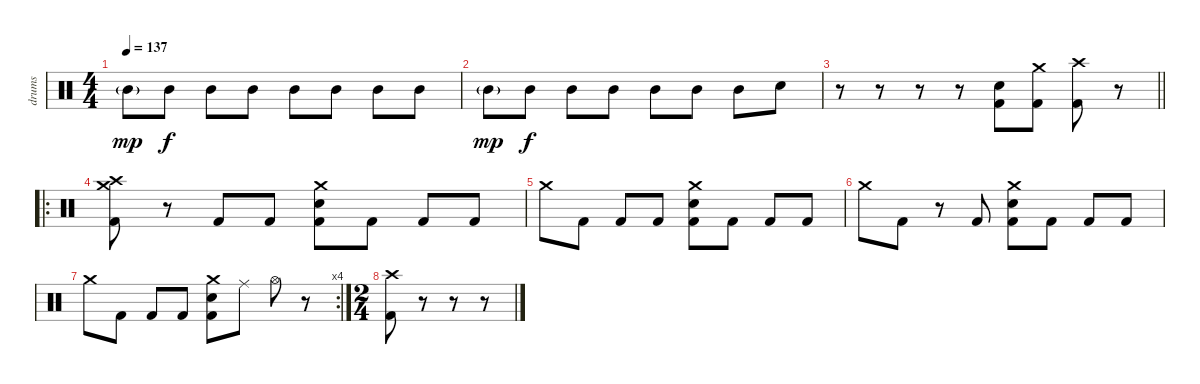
\track ("drums" "drums") {instrument percussion}
\staff {score}
\articulation defaults
\ts (4 4)
\tempo 137
\clef neutral
\ks c "Mid Tom (hit)"{g}.8{dy mp} "Mid Tom (hit)".8{dy f} "Mid Tom (hit)".8 "Mid Tom (hit)".8 "Mid Tom (hit)".8 "Mid Tom (hit)".8 "Mid Tom (hit)".8 "Mid Tom (hit)".8
|
"Mid Tom (hit)"{g}.8{dy mp} "Mid Tom (hit)".8{dy f} "Mid Tom (hit)".8 "Mid Tom (hit)".8 "Mid Tom (hit)".8 "Mid Tom (hit)".8 "Mid Tom (hit)".8 "Snare (hit) 2".8 |
\barLineRight lightlight
r.8 r.8 r.8 r.8 ("Snare (hit) 2" "Kick (hit) 2").8 ("Crash medium (hit)" "Kick (hit) 2").8 ("Crash high (hit)" "Kick (hit) 2").8 r.8 |
\ro
("Crash medium (hit)" "Crash high (hit)" "Kick (hit) 2").8 r.8 "Kick (hit) 2".8 "Kick (hit) 2".8 ("Crash medium (hit)" "Snare (hit) 2" "Kick (hit) 2").8 "Kick (hit) 2".8 "Kick (hit) 2".8 "Kick (hit) 2".8 |
"Crash medium (hit)".8 "Kick (hit) 2".8 "Kick (hit) 2".8 "Kick (hit) 2".8 ("Crash medium (hit)" "Snare (hit) 2" "Kick (hit) 2").8 "Kick (hit) 2".8 "Kick (hit) 2".8 "Kick (hit) 2".8 |
"Crash medium (hit)".8 "Kick (hit) 2".8 r.8 "Kick (hit) 2".8 ("Crash medium (hit)" "Snare (hit) 2" "Kick (hit) 2").8 "Kick (hit) 2".8 "Kick (hit) 2".8 "Kick (hit) 2".8 |
\rc 4 "Crash medium (hit)".8 "Kick (hit) 2".8 "Kick (hit) 2".8 "Kick (hit) 2".8
("Crash medium (hit)" "Snare (hit) 2" "Kick (hit) 2").8 "Ride (middle)".8 "Hi-Hat (open)".8 r.8 |
\ts (2 4)
("Crash high (hit)" "Kick (hit) 2").8 r.8 r.8 r.8
